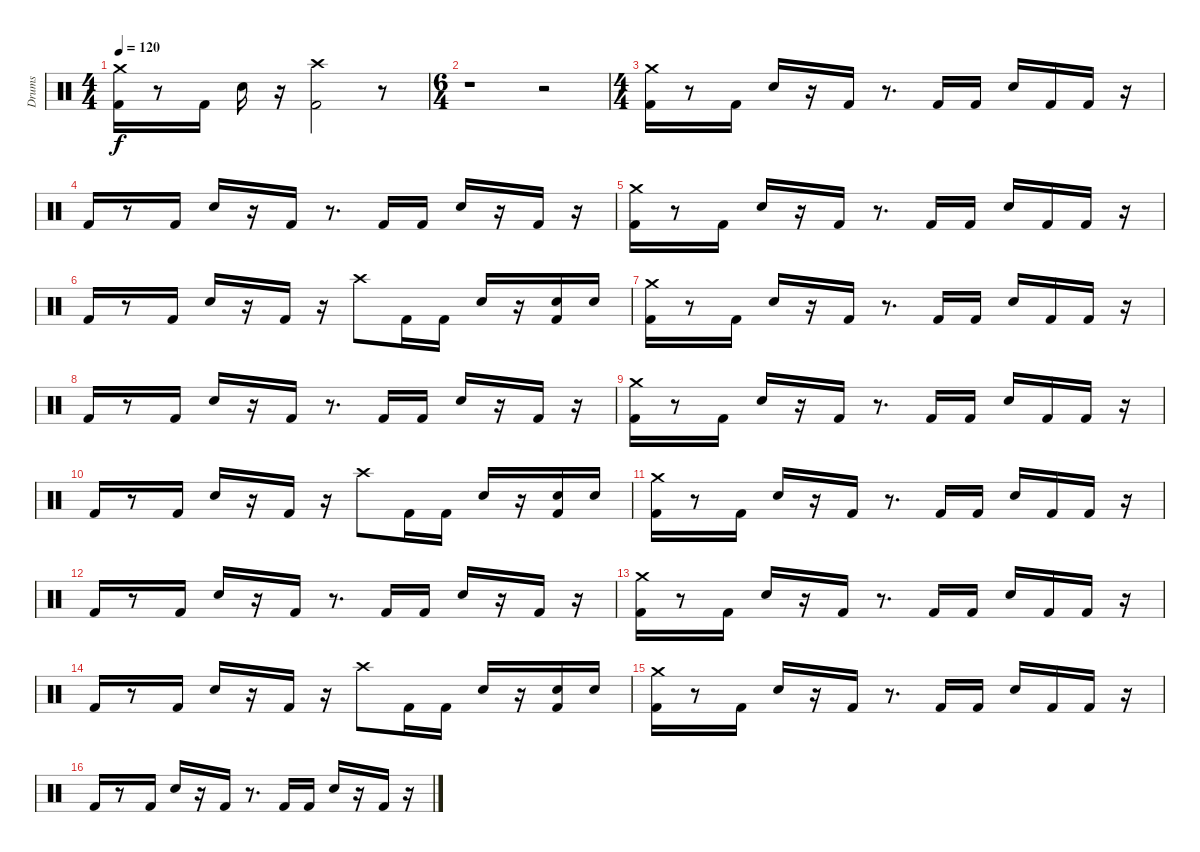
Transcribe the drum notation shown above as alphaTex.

\track ("Drums" "Drums") {instrument percussion}
\staff {score}
\articulation defaults
\ts (4 4)
\tempo 120
\clef neutral
\ks c
("Kick (hit) 2" "Crash medium (hit)").16{dy f} r.8 "Kick (hit) 2".16 "Snare (hit) 2".16 r.16 ("Kick (hit) 2" "Crash high (hit)").2 r.8 |
\ts (6 4)
r.1 r.2 |
\ts (4 4)
("Kick (hit) 2" "Crash medium (hit)").16 r.8 "Kick (hit) 2".16 "Snare (hit) 2".16 r.16 "Kick (hit) 2".16 r.8{d} "Kick (hit) 2".16 "Kick (hit) 2".16 "Snare (hit) 2".16 "Kick (hit) 2".16 "Kick (hit) 2".16 r.16 |
"Kick (hit) 2".16 r.8 "Kick (hit) 2".16 "Snare (hit) 2".16 r.16 "Kick (hit) 2".16 r.8{d} "Kick (hit) 2".16 "Kick (hit) 2".16 "Snare (hit) 2".16 r.16 "Kick (hit) 2".16 r.16 |
("Kick (hit) 2" "Crash medium (hit)").16 r.8 "Kick (hit) 2".16 "Snare (hit) 2".16 r.16 "Kick (hit) 2".16 r.8{d} "Kick (hit) 2".16 "Kick (hit) 2".16 "Snare (hit) 2".16 "Kick (hit) 2".16 "Kick (hit) 2".16 r.16 |
"Kick (hit) 2".16 r.8 "Kick (hit) 2".16 "Snare (hit) 2".16 r.16 "Kick (hit) 2".16 r.16 "Crash high (hit)".8 "Kick (hit) 2".16 "Kick (hit) 2".16 "Snare (hit) 2".16 r.16 ("Kick (hit) 2" "Snare (hit) 2").16 "Snare (hit) 2".16 |
("Kick (hit) 2" "Crash medium (hit)").16 r.8 "Kick (hit) 2".16 "Snare (hit) 2".16 r.16 "Kick (hit) 2".16 r.8{d} "Kick (hit) 2".16 "Kick (hit) 2".16 "Snare (hit) 2".16 "Kick (hit) 2".16 "Kick (hit) 2".16 r.16 |
"Kick (hit) 2".16 r.8 "Kick (hit) 2".16 "Snare (hit) 2".16 r.16 "Kick (hit) 2".16 r.8{d} "Kick (hit) 2".16 "Kick (hit) 2".16 "Snare (hit) 2".16 r.16 "Kick (hit) 2".16 r.16 |
("Kick (hit) 2" "Crash medium (hit)").16 r.8 "Kick (hit) 2".16 "Snare (hit) 2".16 r.16 "Kick (hit) 2".16 r.8{d} "Kick (hit) 2".16 "Kick (hit) 2".16 "Snare (hit) 2".16 "Kick (hit) 2".16 "Kick (hit) 2".16 r.16 |
"Kick (hit) 2".16 r.8 "Kick (hit) 2".16 "Snare (hit) 2".16 r.16 "Kick (hit) 2".16 r.16 "Crash high (hit)".8 "Kick (hit) 2".16 "Kick (hit) 2".16 "Snare (hit) 2".16 r.16 ("Kick (hit) 2" "Snare (hit) 2").16 "Snare (hit) 2".16 |
("Kick (hit) 2" "Crash medium (hit)").16 r.8 "Kick (hit) 2".16 "Snare (hit) 2".16 r.16 "Kick (hit) 2".16 r.8{d} "Kick (hit) 2".16 "Kick (hit) 2".16 "Snare (hit) 2".16 "Kick (hit) 2".16 "Kick (hit) 2".16 r.16 |
"Kick (hit) 2".16 r.8 "Kick (hit) 2".16 "Snare (hit) 2".16 r.16 "Kick (hit) 2".16 r.8{d} "Kick (hit) 2".16 "Kick (hit) 2".16 "Snare (hit) 2".16 r.16 "Kick (hit) 2".16 r.16 |
("Kick (hit) 2" "Crash medium (hit)").16 r.8 "Kick (hit) 2".16 "Snare (hit) 2".16 r.16 "Kick (hit) 2".16 r.8{d} "Kick (hit) 2".16 "Kick (hit) 2".16 "Snare (hit) 2".16 "Kick (hit) 2".16 "Kick (hit) 2".16 r.16 |
"Kick (hit) 2".16 r.8 "Kick (hit) 2".16 "Snare (hit) 2".16 r.16 "Kick (hit) 2".16 r.16 "Crash high (hit)".8 "Kick (hit) 2".16 "Kick (hit) 2".16 "Snare (hit) 2".16 r.16 ("Kick (hit) 2" "Snare (hit) 2").16 "Snare (hit) 2".16 |
("Kick (hit) 2" "Crash medium (hit)").16 r.8 "Kick (hit) 2".16 "Snare (hit) 2".16 r.16 "Kick (hit) 2".16 r.8{d} "Kick (hit) 2".16 "Kick (hit) 2".16 "Snare (hit) 2".16 "Kick (hit) 2".16 "Kick (hit) 2".16 r.16 |
"Kick (hit) 2".16 r.8 "Kick (hit) 2".16 "Snare (hit) 2".16 r.16 "Kick (hit) 2".16 r.8{d} "Kick (hit) 2".16 "Kick (hit) 2".16 "Snare (hit) 2".16 r.16 "Kick (hit) 2".16 r.16
